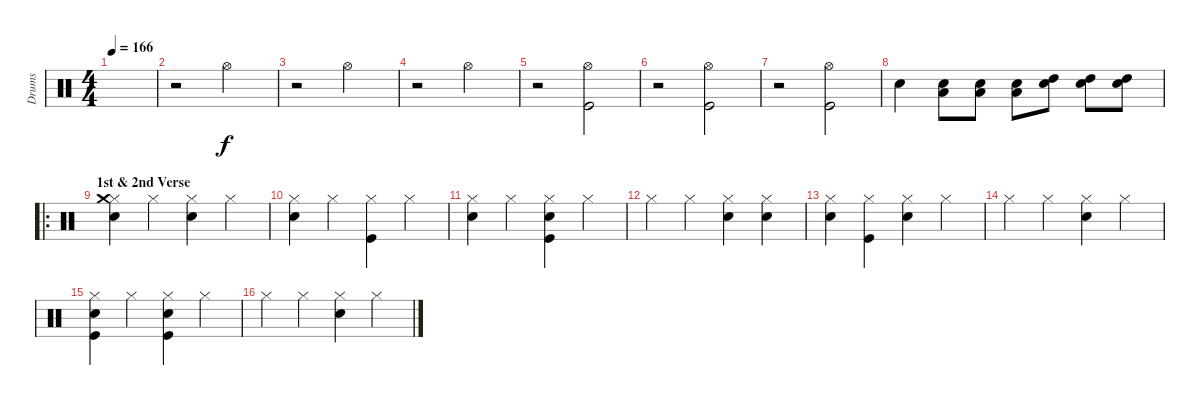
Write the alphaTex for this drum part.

\track ("Drums" "Drums") {instrument percussion}
\staff {score}
\articulation defaults
\ts (4 4)
\tempo 166
\clef neutral
\ks c
|
r.2 "Hi-Hat (open)".2 |
r.2 "Hi-Hat (open)".2 |
r.2 "Hi-Hat (open)".2 |
r.2 ("Hi-Hat (open)" "Kick (hit)").2 |
r.2 ("Hi-Hat (open)" "Kick (hit)").2 |
r.2 ("Hi-Hat (open)" "Kick (hit)").2 |
"Snare (hit) 2".4 ("Snare (hit) 2" "Low Tom (hit)").8 ("Snare (hit) 2" "Low Tom (hit)").8 ("Snare (hit) 2" "Low Tom (hit)").8 ("Snare (hit) 2" "High Tom (hit)").8 ("Snare (hit) 2" "High Tom (hit)").8 ("Snare (hit) 2" "High Tom (hit)").8 |
\ro
\section ("" "1st & 2nd Verse")
("Hi-Hat (closed)" "Crash medium (hit)" "Snare (hit) 2").4 "Hi-Hat (closed)".4 ("Hi-Hat (closed)" "Snare (hit) 2").4 "Hi-Hat (closed)".4 |
("Hi-Hat (closed)" "Snare (hit) 2").4 "Hi-Hat (closed)".4 ("Hi-Hat (closed)" "Kick (hit)").4 "Hi-Hat (closed)".4 |
("Hi-Hat (closed)" "Snare (hit) 2").4 "Hi-Hat (closed)".4 ("Hi-Hat (closed)" "Kick (hit)" "Snare (hit) 2").4 "Hi-Hat (closed)".4 |
"Hi-Hat (closed)".4 "Hi-Hat (closed)".4 ("Hi-Hat (closed)" "Snare (hit) 2").4 ("Hi-Hat (closed)" "Snare (hit) 2").4 |
("Hi-Hat (closed)" "Snare (hit) 2").4 ("Hi-Hat (closed)" "Kick (hit)").4 ("Hi-Hat (closed)" "Snare (hit) 2").4 "Hi-Hat (closed)".4 |
"Hi-Hat (closed)".4 "Hi-Hat (closed)".4 ("Hi-Hat (closed)" "Snare (hit) 2").4 "Hi-Hat (closed)".4 |
("Hi-Hat (closed)" "Kick (hit)" "Snare (hit) 2").4 "Hi-Hat (closed)".4 ("Hi-Hat (closed)" "Kick (hit)" "Snare (hit) 2").4 "Hi-Hat (closed)".4 |
"Hi-Hat (closed)".4 "Hi-Hat (closed)".4 ("Hi-Hat (closed)" "Snare (hit) 2").4 "Hi-Hat (closed)".4
